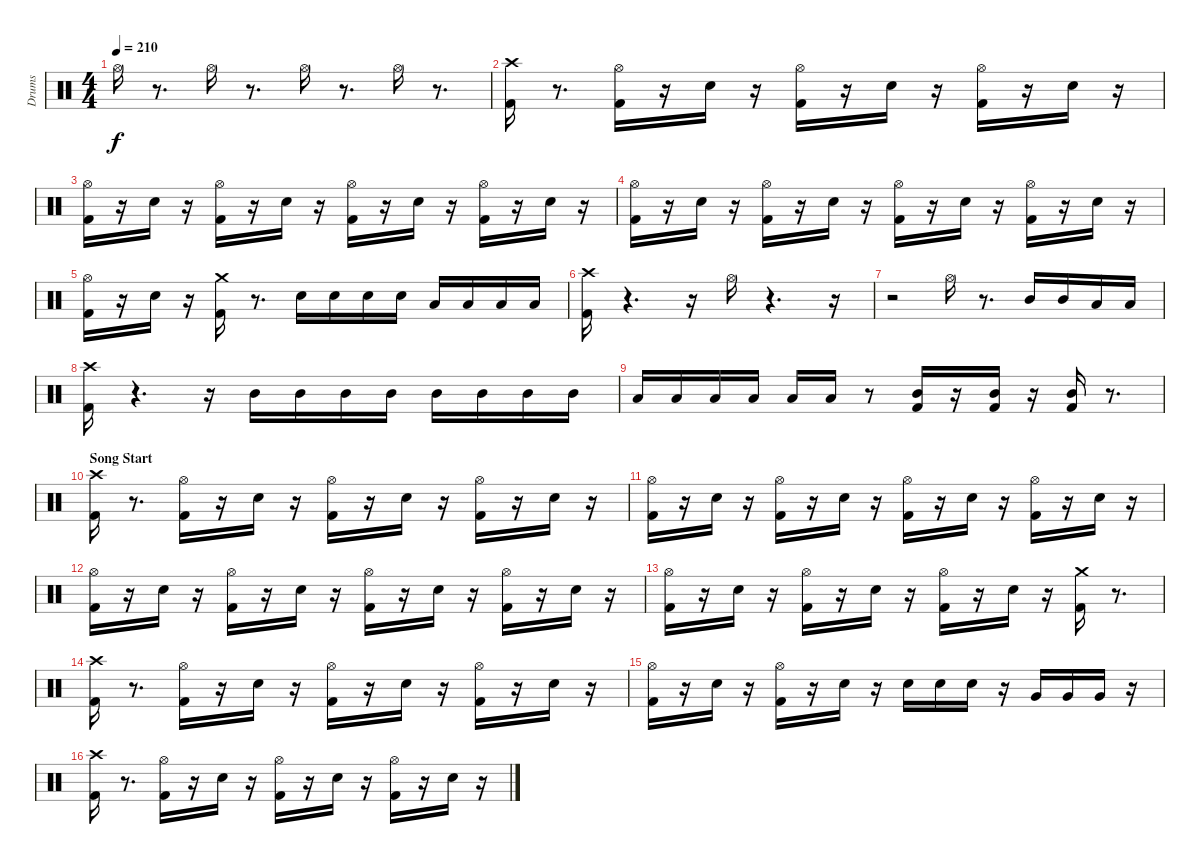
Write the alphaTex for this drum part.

\track ("Drums" "Drums") {instrument percussion}
\staff {score}
\articulation defaults
\ts (4 4)
\tempo 210
\clef neutral
\ks c "Hi-Hat (open)".16{dy f}
r.8{d} "Hi-Hat (open)".16 r.8{d} "Hi-Hat (open)".16 r.8{d} "Hi-Hat (open)".16 r.8{d} |
("Crash high (hit)" "Kick (hit) 2").16 r.8{d} ("Kick (hit) 2" "Hi-Hat (open)").16 r.16 "Snare (hit) 2".16 r.16 ("Hi-Hat (open)" "Kick (hit) 2").16 r.16 "Snare (hit) 2".16 r.16 ("Hi-Hat (open)" "Kick (hit) 2").16 r.16 "Snare (hit) 2".16 r.16 |
("Kick (hit) 2" "Hi-Hat (open)").16 r.16 "Snare (hit) 2".16 r.16 ("Kick (hit) 2" "Hi-Hat (open)").16 r.16 "Snare (hit) 2".16 r.16 ("Hi-Hat (open)" "Kick (hit) 2").16 r.16 "Snare (hit) 2".16 r.16 ("Kick (hit) 2" "Hi-Hat (open)").16 r.16 "Snare (hit) 2".16 r.16 |
("Kick (hit) 2" "Hi-Hat (open)").16 r.16 "Snare (hit) 2".16 r.16 ("Hi-Hat (open)" "Kick (hit) 2").16 r.16 "Snare (hit) 2".16 r.16 ("Hi-Hat (open)" "Kick (hit) 2").16 r.16 "Snare (hit) 2".16 r.16 ("Hi-Hat (open)" "Kick (hit) 2").16 r.16 "Snare (hit) 2".16 r.16 |
("Hi-Hat (open)" "Kick (hit) 2").16 r.16 "Snare (hit) 2".16 r.16 ("Crash medium (hit)" "Kick (hit) 2").16 r.8{d} "Snare (hit) 2".16 "Snare (hit) 2".16 "Snare (hit) 2".16 "Snare (hit) 2".16 "Low Tom (hit)".16 "Low Tom (hit)".16 "Low Tom (hit)".16 "Low Tom (hit)".16 |
("Crash high (hit)" "Kick (hit) 2").16 r.4{d} r.16 "Hi-Hat (open)".16 r.4{d} r.16 |
r.2 "Hi-Hat (open)".16 r.8{d} "Mid Tom (hit)".16 "Mid Tom (hit)".16 "Low Tom (hit)".16 "Low Tom (hit)".16 |
("Kick (hit) 2" "Crash high (hit)").16 r.4{d} r.16 "Mid Tom (hit)".16 "Mid Tom (hit)".16 "Mid Tom (hit)".16 "Mid Tom (hit)".16 "Mid Tom (hit)".16 "Mid Tom (hit)".16 "Mid Tom (hit)".16 "Mid Tom (hit)".16 |
"Low Tom (hit)".16 "Low Tom (hit)".16 "Low Tom (hit)".16 "Low Tom (hit)".16 "Low Tom (hit)".16 "Low Tom (hit)".16 r.8 ("Mid Tom (hit)" "Kick (hit) 2").16 r.16 ("Kick (hit) 2" "Mid Tom (hit)").16 r.16 ("Kick (hit) 2" "Mid Tom (hit)").16 r.8{d} |
\section ("" "Song Start")
("Kick (hit) 2" "Crash high (hit)").16 r.8{d} ("Kick (hit) 2" "Hi-Hat (open)").16 r.16 "Snare (hit) 2".16 r.16 ("Hi-Hat (open)" "Kick (hit) 2").16 r.16 "Snare (hit) 2".16 r.16 ("Hi-Hat (open)" "Kick (hit) 2").16 r.16 "Snare (hit) 2".16 r.16 |
("Hi-Hat (open)" "Kick (hit) 2").16 r.16 "Snare (hit) 2".16 r.16 ("Hi-Hat (open)" "Kick (hit) 2").16 r.16 "Snare (hit) 2".16 r.16 ("Hi-Hat (open)" "Kick (hit) 2").16 r.16 "Snare (hit) 2".16 r.16 ("Kick (hit) 2" "Hi-Hat (open)").16 r.16 "Snare (hit) 2".16 r.16 |
("Hi-Hat (open)" "Kick (hit) 2").16 r.16 "Snare (hit) 2".16 r.16 ("Kick (hit) 2" "Hi-Hat (open)").16 r.16 "Snare (hit) 2".16 r.16 ("Kick (hit) 2" "Hi-Hat (open)").16 r.16 "Snare (hit) 2".16 r.16 ("Kick (hit) 2" "Hi-Hat (open)").16 r.16 "Snare (hit) 2".16 r.16 |
("Hi-Hat (open)" "Kick (hit) 2").16 r.16 "Snare (hit) 2".16 r.16 ("Kick (hit) 2" "Hi-Hat (open)").16 r.16 "Snare (hit) 2".16 r.16 ("Kick (hit) 2" "Hi-Hat (open)").16 r.16 "Snare (hit) 2".16 r.16 ("Kick (hit) 2" "Crash medium (hit)").16 r.8{d} |
("Kick (hit) 2" "Crash high (hit)").16 r.8{d} ("Hi-Hat (open)" "Kick (hit) 2").16 r.16 "Snare (hit) 2".16 r.16 ("Hi-Hat (open)" "Kick (hit) 2").16 r.16 "Snare (hit) 2".16 r.16 ("Hi-Hat (open)" "Kick (hit) 2").16 r.16 "Snare (hit) 2".16 r.16 |
("Kick (hit) 2" "Hi-Hat (open)").16 r.16 "Snare (hit) 2".16 r.16 ("Hi-Hat (open)" "Kick (hit) 2").16 r.16 "Snare (hit) 2".16 r.16 "Snare (hit) 2".16 "Snare (hit) 2".16 "Snare (hit) 2".16 r.16 "Very Low Tom (hit)".16 "Very Low Tom (hit)".16 "Very Low Tom (hit)".16 r.16 |
("Crash high (hit)" "Kick (hit) 2").16 r.8{d} ("Kick (hit) 2" "Hi-Hat (open)").16 r.16 "Snare (hit) 2".16 r.16 ("Kick (hit) 2" "Hi-Hat (open)").16 r.16 "Snare (hit) 2".16 r.16 ("Kick (hit) 2" "Hi-Hat (open)").16 r.16 "Snare (hit) 2".16 r.16
